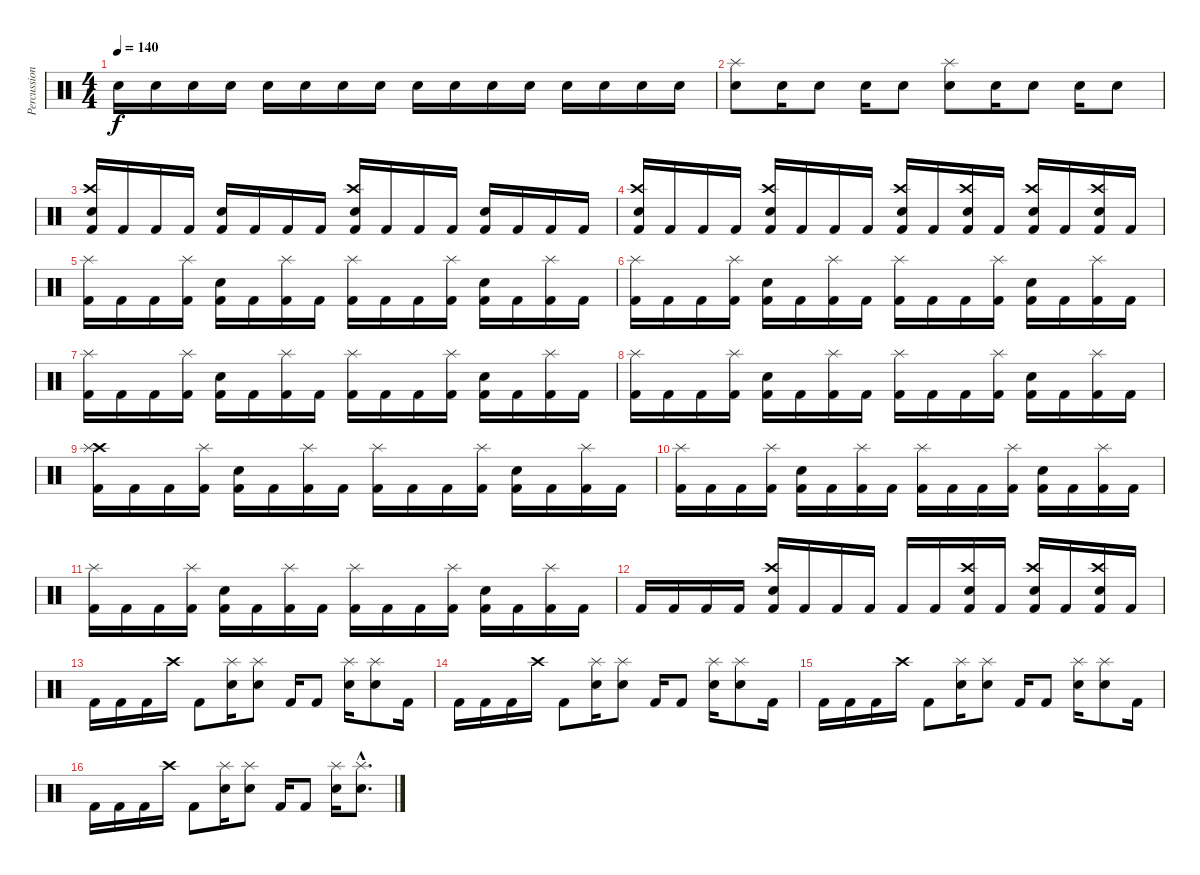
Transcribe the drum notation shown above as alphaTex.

\track ("Percussion" "Percussion") {instrument percussion}
\staff {score}
\articulation defaults
\ts (4 4)
\tempo 140
\clef neutral
\ks c "Electric Snare (hit)".16{dy f} "Electric Snare (hit)".16 "Electric Snare (hit)".16 "Electric Snare (hit)".16 "Electric Snare (hit)".16 "Electric Snare (hit)".16 "Electric Snare (hit)".16 "Electric Snare (hit)".16 "Electric Snare (hit)".16 "Electric Snare (hit)".16 "Electric Snare (hit)".16 "Electric Snare (hit)".16 "Electric Snare (hit)".16 "Electric Snare (hit)".16 "Electric Snare (hit)".16 "Electric Snare (hit)".16
|
("Splash (hit)" "Electric Snare (hit)").8 "Electric Snare (hit)".16 "Electric Snare (hit)".8 "Electric Snare (hit)".16 "Electric Snare (hit)".8 ("Splash (hit)" "Electric Snare (hit)").8 "Electric Snare (hit)".16 "Electric Snare (hit)".8 "Electric Snare (hit)".16 "Electric Snare (hit)".8 |
("Crash high (hit)" "Electric Snare (hit)" "Kick (hit) 2").16 "Kick (hit) 2".16 "Kick (hit) 2".16 "Kick (hit) 2".16 ("Electric Snare (hit)" "Kick (hit) 2").16 "Kick (hit) 2".16 "Kick (hit) 2".16 "Kick (hit) 2".16 ("Crash high (hit)" "Electric Snare (hit)" "Kick (hit) 2").16 "Kick (hit) 2".16 "Kick (hit) 2".16 "Kick (hit) 2".16 ("Electric Snare (hit)" "Kick (hit) 2").16 "Kick (hit) 2".16 "Kick (hit) 2".16 "Kick (hit) 2".16 |
("Crash high (hit)" "Electric Snare (hit)" "Kick (hit) 2").16 "Kick (hit) 2".16 "Kick (hit) 2".16 "Kick (hit) 2".16 ("Crash high (hit)" "Electric Snare (hit)" "Kick (hit) 2").16 "Kick (hit) 2".16 "Kick (hit) 2".16 "Kick (hit) 2".16 ("Crash high (hit)" "Electric Snare (hit)" "Kick (hit) 2").16 "Kick (hit) 2".16 ("Crash high (hit)" "Electric Snare (hit)" "Kick (hit) 2").16 "Kick (hit) 2".16 ("Crash high (hit)" "Electric Snare (hit)" "Kick (hit) 2").16 "Kick (hit) 2".16 ("Crash high (hit)" "Electric Snare (hit)" "Kick (hit) 2").16 "Kick (hit) 2".16 |
("Splash (hit)" "Kick (hit) 2").16 "Kick (hit) 2".16 "Kick (hit) 2".16 ("Splash (hit)" "Kick (hit) 2").16 ("Electric Snare (hit)" "Kick (hit) 2").16 "Kick (hit) 2".16 ("Splash (hit)" "Kick (hit) 2").16 "Kick (hit) 2".16 ("Splash (hit)" "Kick (hit) 2").16 "Kick (hit) 2".16 "Kick (hit) 2".16 ("Splash (hit)" "Kick (hit) 2").16 ("Electric Snare (hit)" "Kick (hit) 2").16 "Kick (hit) 2".16 ("Splash (hit)" "Kick (hit) 2").16 "Kick (hit) 2".16 |
("Splash (hit)" "Kick (hit) 2").16 "Kick (hit) 2".16 "Kick (hit) 2".16 ("Splash (hit)" "Kick (hit) 2").16 ("Electric Snare (hit)" "Kick (hit) 2").16 "Kick (hit) 2".16 ("Splash (hit)" "Kick (hit) 2").16 "Kick (hit) 2".16 ("Splash (hit)" "Kick (hit) 2").16 "Kick (hit) 2".16 "Kick (hit) 2".16 ("Splash (hit)" "Kick (hit) 2").16 ("Electric Snare (hit)" "Kick (hit) 2").16 "Kick (hit) 2".16 ("Splash (hit)" "Kick (hit) 2").16 "Kick (hit) 2".16 |
("Splash (hit)" "Kick (hit) 2").16 "Kick (hit) 2".16 "Kick (hit) 2".16 ("Splash (hit)" "Kick (hit) 2").16 ("Electric Snare (hit)" "Kick (hit) 2").16 "Kick (hit) 2".16 ("Splash (hit)" "Kick (hit) 2").16 "Kick (hit) 2".16 ("Splash (hit)" "Kick (hit) 2").16 "Kick (hit) 2".16 "Kick (hit) 2".16 ("Splash (hit)" "Kick (hit) 2").16 ("Electric Snare (hit)" "Kick (hit) 2").16 "Kick (hit) 2".16 ("Splash (hit)" "Kick (hit) 2").16 "Kick (hit) 2".16 |
("Splash (hit)" "Kick (hit) 2").16 "Kick (hit) 2".16 "Kick (hit) 2".16 ("Splash (hit)" "Kick (hit) 2").16 ("Electric Snare (hit)" "Kick (hit) 2").16 "Kick (hit) 2".16 ("Splash (hit)" "Kick (hit) 2").16 "Kick (hit) 2".16 ("Splash (hit)" "Kick (hit) 2").16 "Kick (hit) 2".16 "Kick (hit) 2".16 ("Splash (hit)" "Kick (hit) 2").16 ("Electric Snare (hit)" "Kick (hit) 2").16 "Kick (hit) 2".16 ("Splash (hit)" "Kick (hit) 2").16 "Kick (hit) 2".16 |
("Crash high (hit)" "Splash (hit)" "Kick (hit) 2").16 "Kick (hit) 2".16 "Kick (hit) 2".16 ("Splash (hit)" "Kick (hit) 2").16 ("Electric Snare (hit)" "Kick (hit) 2").16 "Kick (hit) 2".16 ("Splash (hit)" "Kick (hit) 2").16 "Kick (hit) 2".16 ("Splash (hit)" "Kick (hit) 2").16 "Kick (hit) 2".16 "Kick (hit) 2".16 ("Splash (hit)" "Kick (hit) 2").16 ("Electric Snare (hit)" "Kick (hit) 2").16 "Kick (hit) 2".16 ("Splash (hit)" "Kick (hit) 2").16 "Kick (hit) 2".16 |
("Splash (hit)" "Kick (hit) 2").16 "Kick (hit) 2".16 "Kick (hit) 2".16 ("Splash (hit)" "Kick (hit) 2").16 ("Electric Snare (hit)" "Kick (hit) 2").16 "Kick (hit) 2".16 ("Splash (hit)" "Kick (hit) 2").16 "Kick (hit) 2".16 ("Splash (hit)" "Kick (hit) 2").16 "Kick (hit) 2".16 "Kick (hit) 2".16 ("Splash (hit)" "Kick (hit) 2").16 ("Electric Snare (hit)" "Kick (hit) 2").16 "Kick (hit) 2".16 ("Splash (hit)" "Kick (hit) 2").16 "Kick (hit) 2".16 |
("Splash (hit)" "Kick (hit) 2").16 "Kick (hit) 2".16 "Kick (hit) 2".16 ("Splash (hit)" "Kick (hit) 2").16 ("Electric Snare (hit)" "Kick (hit) 2").16 "Kick (hit) 2".16 ("Splash (hit)" "Kick (hit) 2").16 "Kick (hit) 2".16 ("Splash (hit)" "Kick (hit) 2").16 "Kick (hit) 2".16 "Kick (hit) 2".16 ("Splash (hit)" "Kick (hit) 2").16 ("Electric Snare (hit)" "Kick (hit) 2").16 "Kick (hit) 2".16 ("Splash (hit)" "Kick (hit) 2").16 "Kick (hit) 2".16 |
"Kick (hit) 2".16 "Kick (hit) 2".16 "Kick (hit) 2".16 "Kick (hit) 2".16 ("Crash high (hit)" "Electric Snare (hit)" "Kick (hit) 2").16 "Kick (hit) 2".16 "Kick (hit) 2".16 "Kick (hit) 2".16 "Kick (hit) 2".16 "Kick (hit) 2".16 ("Crash high (hit)" "Electric Snare (hit)" "Kick (hit) 2").16 "Kick (hit) 2".16 ("Crash high (hit)" "Electric Snare (hit)" "Kick (hit) 2").16 "Kick (hit) 2".16 ("Crash high (hit)" "Electric Snare (hit)" "Kick (hit) 2").16 "Kick (hit) 2".16 |
"Kick (hit) 2".16 "Kick (hit) 2".16 "Kick (hit) 2".16 "Crash high (hit)".16 "Kick (hit) 2".8 ("Splash (hit)" "Electric Snare (hit)").16 ("Splash (hit)" "Electric Snare (hit)").8 "Kick (hit) 2".16 "Kick (hit) 2".8 ("Splash (hit)" "Electric Snare (hit)").16 ("Splash (hit)" "Electric Snare (hit)").8 "Kick (hit) 2".16 |
"Kick (hit) 2".16 "Kick (hit) 2".16 "Kick (hit) 2".16 "Crash high (hit)".16 "Kick (hit) 2".8 ("Splash (hit)" "Electric Snare (hit)").16 ("Splash (hit)" "Electric Snare (hit)").8 "Kick (hit) 2".16 "Kick (hit) 2".8 ("Splash (hit)" "Electric Snare (hit)").16 ("Splash (hit)" "Electric Snare (hit)").8 "Kick (hit) 2".16 |
"Kick (hit) 2".16 "Kick (hit) 2".16 "Kick (hit) 2".16 "Crash high (hit)".16 "Kick (hit) 2".8 ("Splash (hit)" "Electric Snare (hit)").16 ("Splash (hit)" "Electric Snare (hit)").8 "Kick (hit) 2".16 "Kick (hit) 2".8 ("Splash (hit)" "Electric Snare (hit)").16 ("Splash (hit)" "Electric Snare (hit)").8 "Kick (hit) 2".16 |
"Kick (hit) 2".16 "Kick (hit) 2".16 "Kick (hit) 2".16 "Crash high (hit)".16 "Kick (hit) 2".8 ("Splash (hit)" "Electric Snare (hit)").16 ("Splash (hit)" "Electric Snare (hit)").8 "Kick (hit) 2".16 "Kick (hit) 2".8 ("Splash (hit)" "Electric Snare (hit)").16 ("Splash (hit)"{hac} "Electric Snare (hit)"{hac}).8{d}
